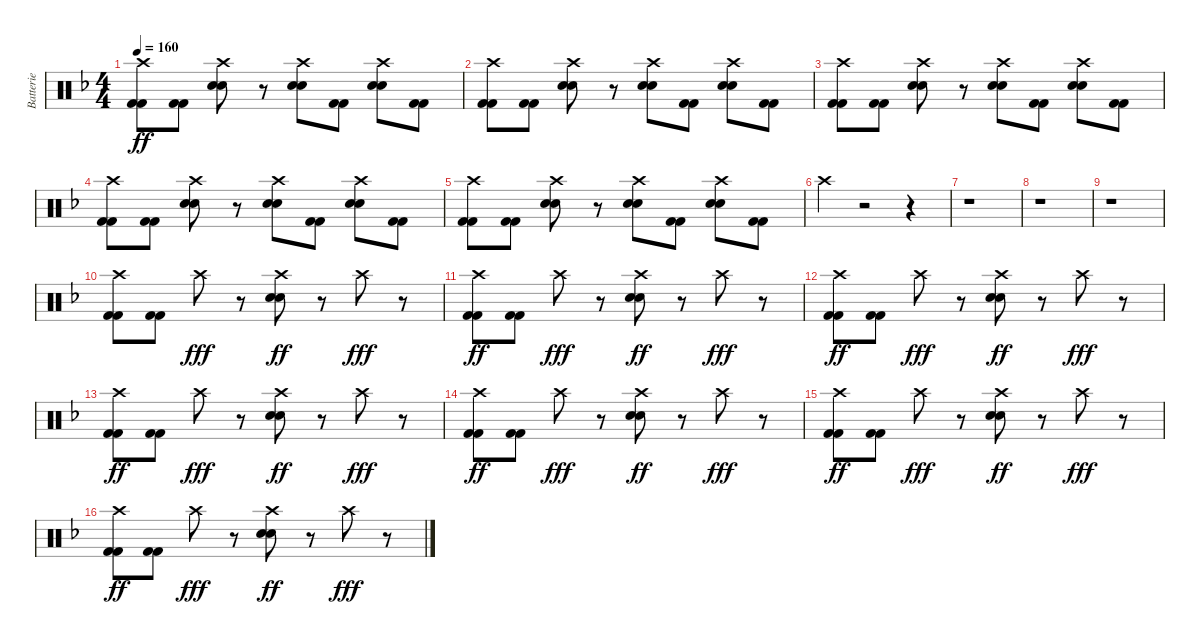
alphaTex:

\track ("Batterie" "Batterie") {instrument percussion}
\staff {score}
\articulation defaults
\ts (4 4)
\tempo 160
\clef neutral
\ks f
("Crash high (hit)" "Kick (hit) 2" "Kick (hit) 2").8{dy ff} ("Kick (hit) 2" "Kick (hit) 2").8 ("Crash high (hit)" "Electric Snare (hit)" "Electric Snare (hit)").8 r.8 ("Crash high (hit)" "Electric Snare (hit)" "Electric Snare (hit)").8 ("Kick (hit) 2" "Kick (hit) 2").8 ("Crash high (hit)" "Electric Snare (hit)" "Electric Snare (hit)").8 ("Kick (hit) 2" "Kick (hit) 2").8 |
("Crash high (hit)" "Kick (hit) 2" "Kick (hit) 2").8 ("Kick (hit) 2" "Kick (hit) 2").8 ("Crash high (hit)" "Electric Snare (hit)" "Electric Snare (hit)").8 r.8 ("Crash high (hit)" "Electric Snare (hit)" "Electric Snare (hit)").8 ("Kick (hit) 2" "Kick (hit) 2").8 ("Crash high (hit)" "Electric Snare (hit)" "Electric Snare (hit)").8 ("Kick (hit) 2" "Kick (hit) 2").8 |
("Crash high (hit)" "Kick (hit) 2" "Kick (hit) 2").8 ("Kick (hit) 2" "Kick (hit) 2").8 ("Crash high (hit)" "Electric Snare (hit)" "Electric Snare (hit)").8 r.8 ("Crash high (hit)" "Electric Snare (hit)" "Electric Snare (hit)").8 ("Kick (hit) 2" "Kick (hit) 2").8 ("Crash high (hit)" "Electric Snare (hit)" "Electric Snare (hit)").8 ("Kick (hit) 2" "Kick (hit) 2").8 |
("Crash high (hit)" "Kick (hit) 2" "Kick (hit) 2").8 ("Kick (hit) 2" "Kick (hit) 2").8 ("Crash high (hit)" "Electric Snare (hit)" "Electric Snare (hit)").8 r.8 ("Crash high (hit)" "Electric Snare (hit)" "Electric Snare (hit)").8 ("Kick (hit) 2" "Kick (hit) 2").8 ("Crash high (hit)" "Electric Snare (hit)" "Electric Snare (hit)").8 ("Kick (hit) 2" "Kick (hit) 2").8 |
("Crash high (hit)" "Kick (hit) 2" "Kick (hit) 2").8 ("Kick (hit) 2" "Kick (hit) 2").8 ("Crash high (hit)" "Electric Snare (hit)" "Electric Snare (hit)").8 r.8 ("Crash high (hit)" "Electric Snare (hit)" "Electric Snare (hit)").8 ("Kick (hit) 2" "Kick (hit) 2").8 ("Crash high (hit)" "Electric Snare (hit)" "Electric Snare (hit)").8 ("Kick (hit) 2" "Kick (hit) 2").8 |
"Crash high (hit)".4 r.2 r.4 |
r.1 |
r.1 |
r.1 |
("Crash high (hit)" "Kick (hit) 2" "Kick (hit) 2").8 ("Kick (hit) 2" "Kick (hit) 2").8 "Crash high (hit)".8{dy fff} r.8 ("Crash high (hit)" "Electric Snare (hit)" "Electric Snare (hit)").8{dy ff} r.8 "Crash high (hit)".8{dy fff} r.8 |
("Crash high (hit)" "Kick (hit) 2" "Kick (hit) 2").8{dy ff} ("Kick (hit) 2" "Kick (hit) 2").8 "Crash high (hit)".8{dy fff} r.8 ("Crash high (hit)" "Electric Snare (hit)" "Electric Snare (hit)").8{dy ff} r.8 "Crash high (hit)".8{dy fff} r.8 |
("Crash high (hit)" "Kick (hit) 2" "Kick (hit) 2").8{dy ff} ("Kick (hit) 2" "Kick (hit) 2").8 "Crash high (hit)".8{dy fff} r.8 ("Crash high (hit)" "Electric Snare (hit)" "Electric Snare (hit)").8{dy ff} r.8 "Crash high (hit)".8{dy fff} r.8 |
("Crash high (hit)" "Kick (hit) 2" "Kick (hit) 2").8{dy ff} ("Kick (hit) 2" "Kick (hit) 2").8 "Crash high (hit)".8{dy fff} r.8 ("Crash high (hit)" "Electric Snare (hit)" "Electric Snare (hit)").8{dy ff} r.8 "Crash high (hit)".8{dy fff} r.8 |
("Crash high (hit)" "Kick (hit) 2" "Kick (hit) 2").8{dy ff} ("Kick (hit) 2" "Kick (hit) 2").8 "Crash high (hit)".8{dy fff} r.8 ("Crash high (hit)" "Electric Snare (hit)" "Electric Snare (hit)").8{dy ff} r.8 "Crash high (hit)".8{dy fff} r.8 |
("Crash high (hit)" "Kick (hit) 2" "Kick (hit) 2").8{dy ff} ("Kick (hit) 2" "Kick (hit) 2").8 "Crash high (hit)".8{dy fff} r.8 ("Crash high (hit)" "Electric Snare (hit)" "Electric Snare (hit)").8{dy ff} r.8 "Crash high (hit)".8{dy fff} r.8 |
("Crash high (hit)" "Kick (hit) 2" "Kick (hit) 2").8{dy ff} ("Kick (hit) 2" "Kick (hit) 2").8 "Crash high (hit)".8{dy fff} r.8 ("Crash high (hit)" "Electric Snare (hit)" "Electric Snare (hit)").8{dy ff} r.8 "Crash high (hit)".8{dy fff} r.8
